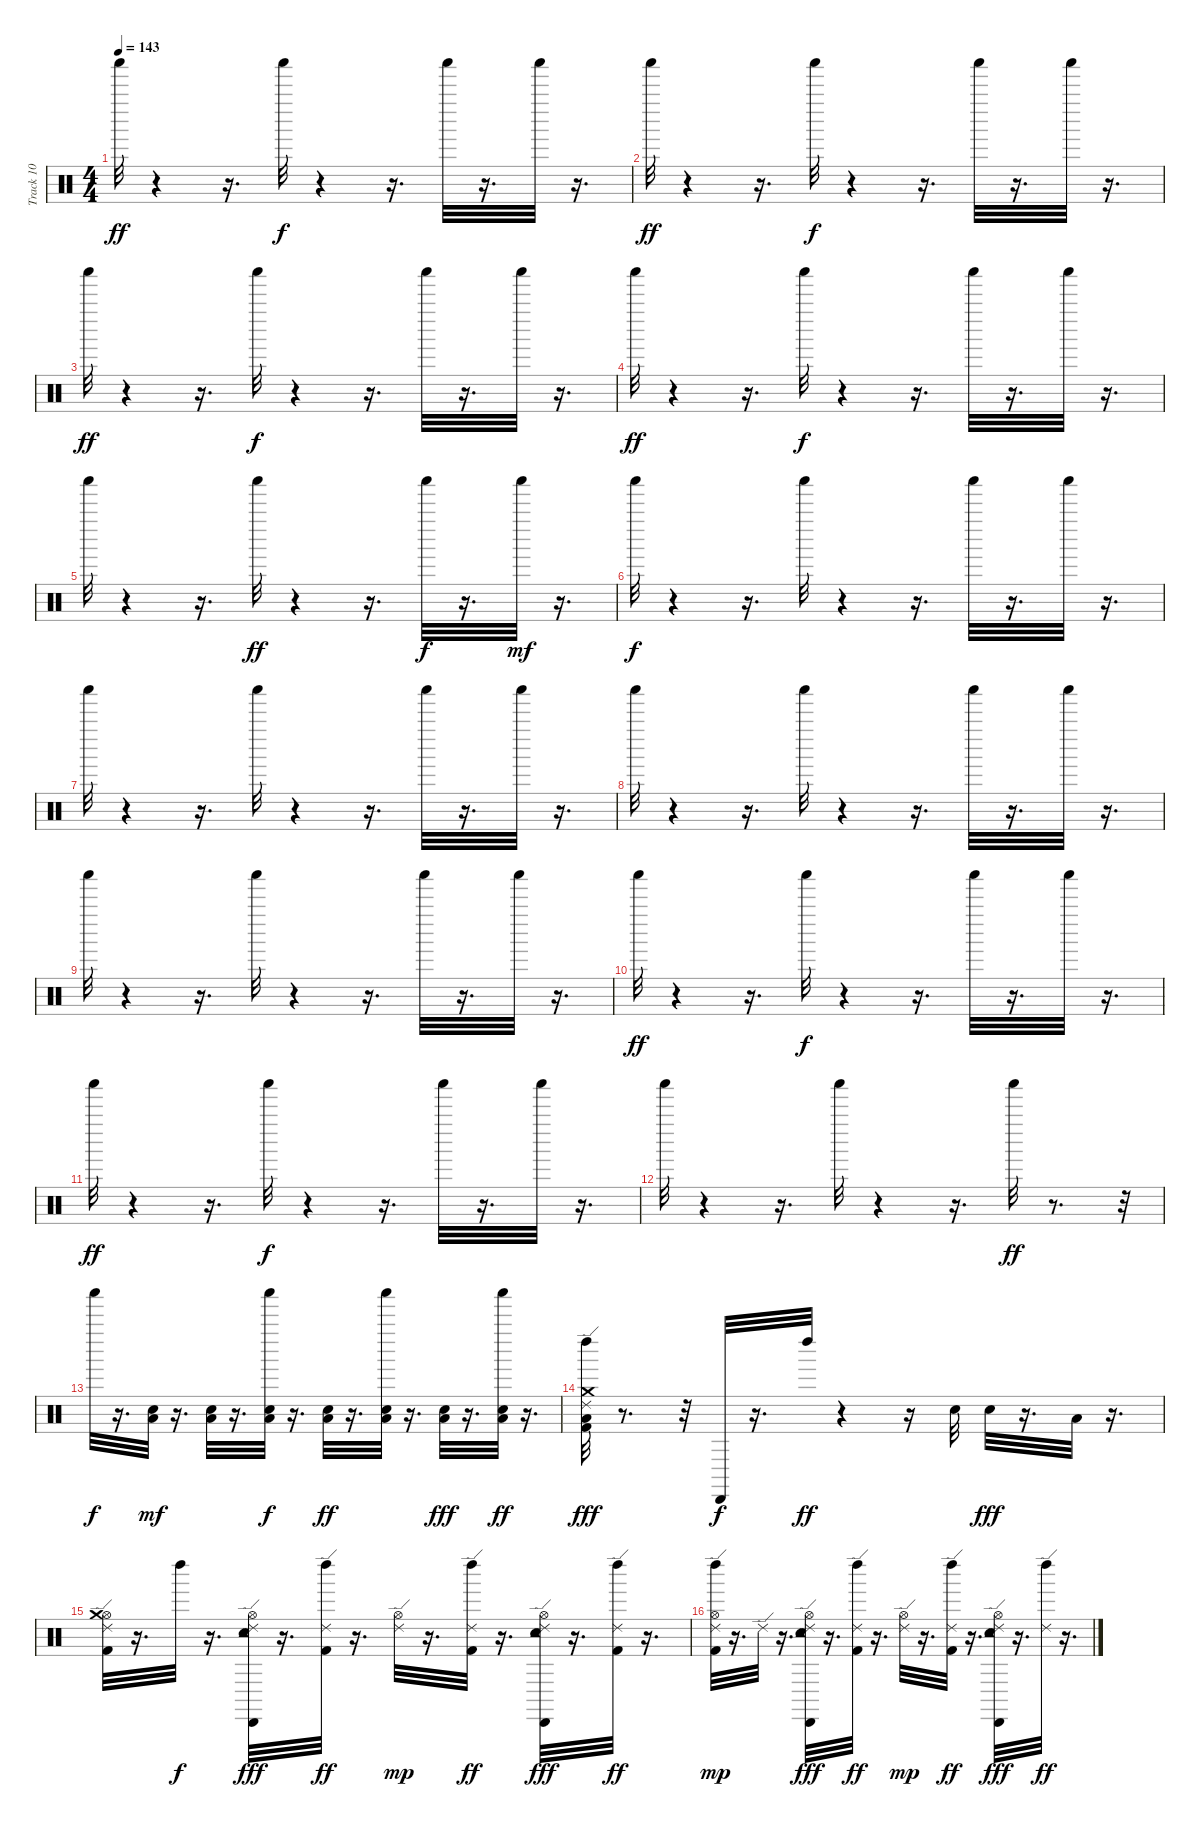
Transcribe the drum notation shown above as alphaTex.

\track ("Track 10" "Track 10") {instrument percussion}
\staff {score}
\articulation defaults
\ts (4 4)
\tempo 143
\clef neutral
\ks c "Shaker (hit)".32{dy ff}
r.4 r.16{d} "Shaker (hit)".32{dy f} r.4 r.16{d} "Shaker (hit)".32 r.16{d} "Shaker (hit)".32 r.16{d} |
"Shaker (hit)".32{dy ff} r.4 r.16{d} "Shaker (hit)".32{dy f} r.4 r.16{d} "Shaker (hit)".32 r.16{d} "Shaker (hit)".32 r.16{d} |
"Shaker (hit)".32{dy ff} r.4 r.16{d} "Shaker (hit)".32{dy f} r.4 r.16{d} "Shaker (hit)".32 r.16{d} "Shaker (hit)".32 r.16{d} |
"Shaker (hit)".32{dy ff} r.4 r.16{d} "Shaker (hit)".32{dy f} r.4 r.16{d} "Shaker (hit)".32 r.16{d} "Shaker (hit)".32 r.16{d} |
"Shaker (hit)".32 r.4 r.16{d} "Shaker (hit)".32{dy ff} r.4 r.16{d} "Shaker (hit)".32{dy f} r.16{d} "Shaker (hit)".32{dy mf} r.16{d} |
"Shaker (hit)".32{dy f} r.4 r.16{d} "Shaker (hit)".32 r.4 r.16{d} "Shaker (hit)".32 r.16{d} "Shaker (hit)".32 r.16{d} |
"Shaker (hit)".32 r.4 r.16{d} "Shaker (hit)".32 r.4 r.16{d} "Shaker (hit)".32 r.16{d} "Shaker (hit)".32 r.16{d} |
"Shaker (hit)".32 r.4 r.16{d} "Shaker (hit)".32 r.4 r.16{d} "Shaker (hit)".32 r.16{d} "Shaker (hit)".32 r.16{d} |
"Shaker (hit)".32 r.4 r.16{d} "Shaker (hit)".32 r.4 r.16{d} "Shaker (hit)".32 r.16{d} "Shaker (hit)".32 r.16{d} |
"Shaker (hit)".32{dy ff} r.4 r.16{d} "Shaker (hit)".32{dy f} r.4 r.16{d} "Shaker (hit)".32 r.16{d} "Shaker (hit)".32 r.16{d} |
"Shaker (hit)".32{dy ff} r.4 r.16{d} "Shaker (hit)".32{dy f} r.4 r.16{d} "Shaker (hit)".32 r.16{d} "Shaker (hit)".32 r.16{d} |
"Shaker (hit)".32 r.4 r.16{d} "Shaker (hit)".32 r.4 r.16{d} "Shaker (hit)".32{dy ff} r.8{d} r.32 |
"Shaker (hit)".32{dy f} r.16{d} ("Snare (hit) 2" "Low Floor Tom (hit)").32{dy mf} r.16{d} ("Snare (hit) 2" "Low Floor Tom (hit)").32 r.16{d} ("Snare (hit) 2" "Low Floor Tom (hit)" "Shaker (hit)").32{dy f} r.16{d} ("Snare (hit) 2" "Low Floor Tom (hit)").32{dy ff} r.16{d} ("Snare (hit) 2" "Low Floor Tom (hit)" "Shaker (hit)").32 r.16{d} ("Snare (hit) 2" "Low Floor Tom (hit)").32{dy fff} r.16{d} ("Snare (hit) 2" "Low Floor Tom (hit)" "Shaker (hit)").32{dy ff} r.16{d} |
("Kick (hit) 2" "Crash medium (hit)" "Ride (edge) 2" "Left Maraca (hit)" "Low Floor Tom (hit)").32{dy fff} r.8{d} r.32 "Cabasa (hit)".32{dy f} r.16{d} "Left Maraca (hit)".32{dy ff} r.4 r.16 "Snare (hit) 2".32 "Snare (hit) 2".32{dy fff} r.16{d} "Low Floor Tom (hit)".32 r.16{d} |
("Kick (hit) 2" "Hi-Hat (open)" "Ride (edge) 2" "Crash medium (hit)").32 r.16{d} "Left Maraca (hit)".32{dy f} r.16{d} ("Snare (hit) 2" "Hi-Hat (open)" "Ride (edge) 2" "Cabasa (hit)" "Tambourine (hit)").32{dy fff} r.16{d} ("Kick (hit) 2" "Ride (edge) 2" "Left Maraca (hit)").32{dy ff} r.16{d} ("Hi-Hat (open)" "Ride (edge) 2").32{dy mp} r.16{d} ("Kick (hit) 2" "Ride (edge) 2" "Left Maraca (hit)").32{dy ff} r.16{d} ("Snare (hit) 2" "Hi-Hat (open)" "Ride (edge) 2" "Cabasa (hit)" "Tambourine (hit)").32{dy fff} r.16{d} ("Kick (hit) 2" "Ride (edge) 2" "Left Maraca (hit)").32{dy ff} r.16{d} |
("Kick (hit) 2" "Ride (edge) 2" "Hi-Hat (open)" "Left Maraca (hit)").32{dy mp} r.16{d} "Ride (edge) 2".32 r.16{d} ("Snare (hit) 2" "Hi-Hat (open)" "Ride (edge) 2" "Cabasa (hit)" "Tambourine (hit)").32{dy fff} r.16{d} ("Kick (hit) 2" "Ride (edge) 2" "Left Maraca (hit)").32{dy ff} r.16{d} ("Hi-Hat (open)" "Ride (edge) 2").32{dy mp} r.16{d} ("Kick (hit) 2" "Ride (edge) 2" "Left Maraca (hit)").32{dy ff} r.16{d} ("Snare (hit) 2" "Ride (edge) 2" "Hi-Hat (open)" "Cabasa (hit)" "Tambourine (hit)").32{dy fff} r.16{d} ("Ride (edge) 2" "Left Maraca (hit)").32{dy ff} r.16{d}
